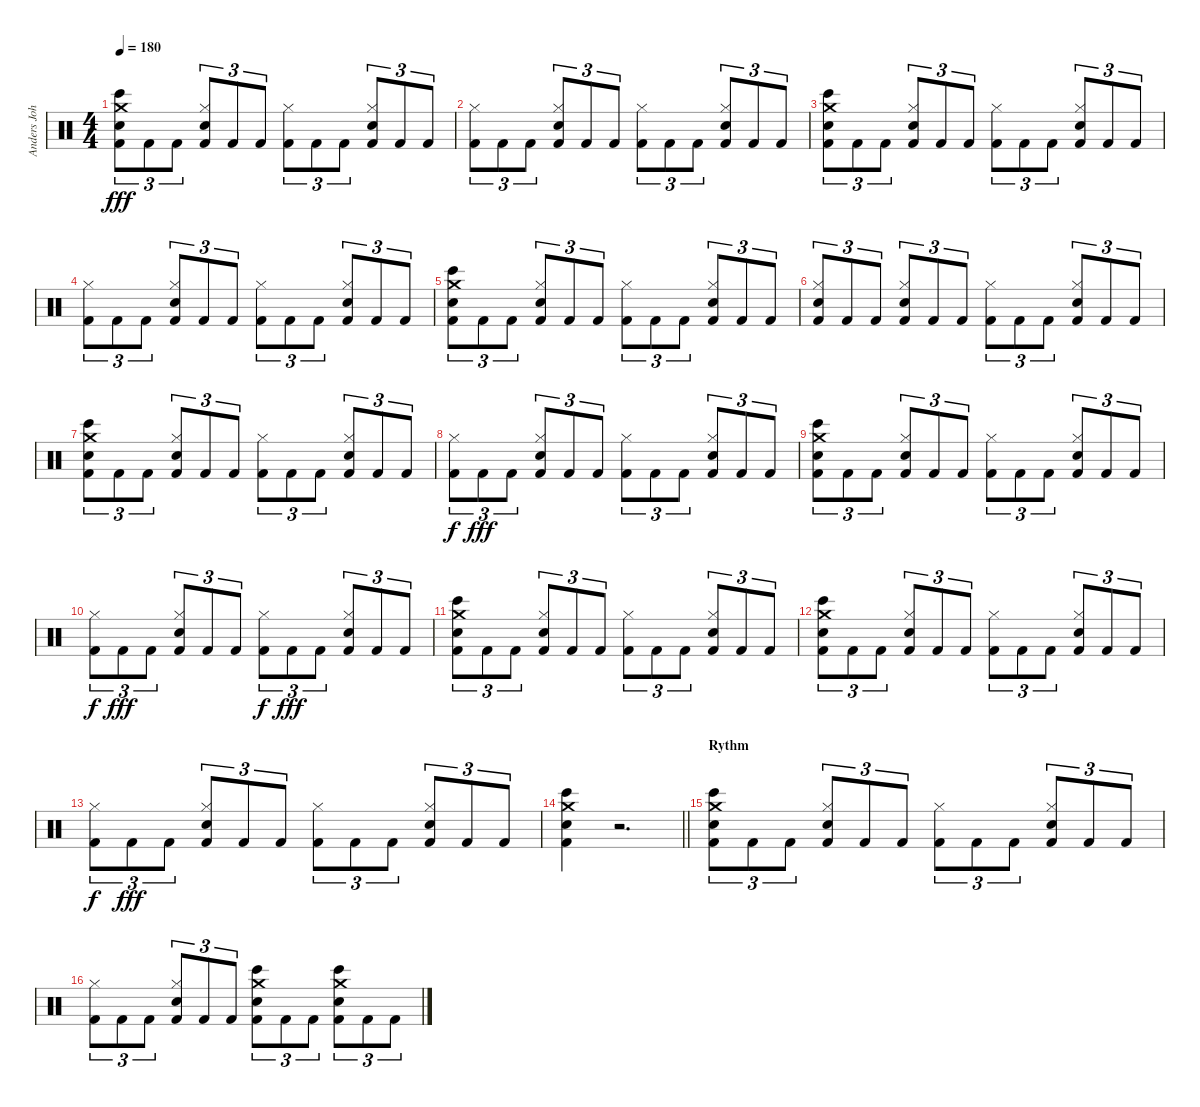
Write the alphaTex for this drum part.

\track ("Anders Johansson" "Anders Joh") {instrument percussion}
\staff {score}
\articulation defaults
\ts (4 4)
\tempo 180
\clef neutral
\ks c
("Bongo High (hit)" "Crash medium (hit)" "Snare (hit) 2" "Kick (hit) 2").8{tu (3 2) dy fff} "Kick (hit) 2".8{tu (3 2)} "Kick (hit) 2".8{tu (3 2)} ("Hi-Hat (closed)" "Electric Snare (hit)" "Kick (hit) 2").8{tu (3 2)} "Kick (hit) 2".8{tu (3 2)} "Kick (hit) 2".8{tu (3 2)} ("Hi-Hat (closed)" "Kick (hit) 2").8{tu (3 2)} "Kick (hit) 2".8{tu (3 2)} "Kick (hit) 2".8{tu (3 2)} ("Hi-Hat (closed)" "Electric Snare (hit)" "Kick (hit) 2").8{tu (3 2)} "Kick (hit) 2".8{tu (3 2)} "Kick (hit) 2".8{tu (3 2)} |
("Hi-Hat (closed)" "Kick (hit) 2").8{tu (3 2)} "Kick (hit) 2".8{tu (3 2)} "Kick (hit) 2".8{tu (3 2)} ("Hi-Hat (closed)" "Electric Snare (hit)" "Kick (hit) 2").8{tu (3 2)} "Kick (hit) 2".8{tu (3 2)} "Kick (hit) 2".8{tu (3 2)} ("Hi-Hat (closed)" "Kick (hit) 2").8{tu (3 2)} "Kick (hit) 2".8{tu (3 2)} "Kick (hit) 2".8{tu (3 2)} ("Hi-Hat (closed)" "Electric Snare (hit)" "Kick (hit) 2").8{tu (3 2)} "Kick (hit) 2".8{tu (3 2)} "Kick (hit) 2".8{tu (3 2)} |
("Bongo High (hit)" "Crash medium (hit)" "Snare (hit) 2" "Kick (hit) 2").8{tu (3 2)} "Kick (hit) 2".8{tu (3 2)} "Kick (hit) 2".8{tu (3 2)} ("Hi-Hat (closed)" "Electric Snare (hit)" "Kick (hit) 2").8{tu (3 2)} "Kick (hit) 2".8{tu (3 2)} "Kick (hit) 2".8{tu (3 2)} ("Hi-Hat (closed)" "Kick (hit) 2").8{tu (3 2)} "Kick (hit) 2".8{tu (3 2)} "Kick (hit) 2".8{tu (3 2)} ("Hi-Hat (closed)" "Electric Snare (hit)" "Kick (hit) 2").8{tu (3 2)} "Kick (hit) 2".8{tu (3 2)} "Kick (hit) 2".8{tu (3 2)} |
("Hi-Hat (closed)" "Kick (hit) 2").8{tu (3 2)} "Kick (hit) 2".8{tu (3 2)} "Kick (hit) 2".8{tu (3 2)} ("Hi-Hat (closed)" "Electric Snare (hit)" "Kick (hit) 2").8{tu (3 2)} "Kick (hit) 2".8{tu (3 2)} "Kick (hit) 2".8{tu (3 2)} ("Hi-Hat (closed)" "Kick (hit) 2").8{tu (3 2)} "Kick (hit) 2".8{tu (3 2)} "Kick (hit) 2".8{tu (3 2)} ("Hi-Hat (closed)" "Electric Snare (hit)" "Kick (hit) 2").8{tu (3 2)} "Kick (hit) 2".8{tu (3 2)} "Kick (hit) 2".8{tu (3 2)} |
("Bongo High (hit)" "Crash medium (hit)" "Snare (hit) 2" "Kick (hit) 2").8{tu (3 2)} "Kick (hit) 2".8{tu (3 2)} "Kick (hit) 2".8{tu (3 2)} ("Hi-Hat (closed)" "Electric Snare (hit)" "Kick (hit) 2").8{tu (3 2)} "Kick (hit) 2".8{tu (3 2)} "Kick (hit) 2".8{tu (3 2)} ("Hi-Hat (closed)" "Kick (hit) 2").8{tu (3 2)} "Kick (hit) 2".8{tu (3 2)} "Kick (hit) 2".8{tu (3 2)} ("Hi-Hat (closed)" "Electric Snare (hit)" "Kick (hit) 2").8{tu (3 2)} "Kick (hit) 2".8{tu (3 2)} "Kick (hit) 2".8{tu (3 2)} |
("Hi-Hat (closed)" "Electric Snare (hit)" "Kick (hit) 2").8{tu (3 2)} "Kick (hit) 2".8{tu (3 2)} "Kick (hit) 2".8{tu (3 2)} ("Hi-Hat (closed)" "Electric Snare (hit)" "Kick (hit) 2").8{tu (3 2)} "Kick (hit) 2".8{tu (3 2)} "Kick (hit) 2".8{tu (3 2)} ("Hi-Hat (closed)" "Kick (hit) 2").8{tu (3 2)} "Kick (hit) 2".8{tu (3 2)} "Kick (hit) 2".8{tu (3 2)} ("Hi-Hat (closed)" "Electric Snare (hit)" "Kick (hit) 2").8{tu (3 2)} "Kick (hit) 2".8{tu (3 2)} "Kick (hit) 2".8{tu (3 2)} |
("Bongo High (hit)" "Crash medium (hit)" "Snare (hit) 2" "Kick (hit) 2").8{tu (3 2)} "Kick (hit) 2".8{tu (3 2)} "Kick (hit) 2".8{tu (3 2)} ("Hi-Hat (closed)" "Electric Snare (hit)" "Kick (hit) 2").8{tu (3 2)} "Kick (hit) 2".8{tu (3 2)} "Kick (hit) 2".8{tu (3 2)} ("Hi-Hat (closed)" "Kick (hit) 2").8{tu (3 2)} "Kick (hit) 2".8{tu (3 2)} "Kick (hit) 2".8{tu (3 2)} ("Hi-Hat (closed)" "Electric Snare (hit)" "Kick (hit) 2").8{tu (3 2)} "Kick (hit) 2".8{tu (3 2)} "Kick (hit) 2".8{tu (3 2)} |
("Hi-Hat (closed)" "Kick (hit) 2").8{tu (3 2) dy f} "Kick (hit) 2".8{tu (3 2) dy fff} "Kick (hit) 2".8{tu (3 2)} ("Hi-Hat (closed)" "Electric Snare (hit)" "Kick (hit) 2").8{tu (3 2)} "Kick (hit) 2".8{tu (3 2)} "Kick (hit) 2".8{tu (3 2)} ("Hi-Hat (closed)" "Kick (hit) 2").8{tu (3 2)} "Kick (hit) 2".8{tu (3 2)} "Kick (hit) 2".8{tu (3 2)} ("Hi-Hat (closed)" "Electric Snare (hit)" "Kick (hit) 2").8{tu (3 2)} "Kick (hit) 2".8{tu (3 2)} "Kick (hit) 2".8{tu (3 2)} |
("Bongo High (hit)" "Crash medium (hit)" "Snare (hit) 2" "Kick (hit) 2").8{tu (3 2)} "Kick (hit) 2".8{tu (3 2)} "Kick (hit) 2".8{tu (3 2)} ("Hi-Hat (closed)" "Electric Snare (hit)" "Kick (hit) 2").8{tu (3 2)} "Kick (hit) 2".8{tu (3 2)} "Kick (hit) 2".8{tu (3 2)} ("Hi-Hat (closed)" "Kick (hit) 2").8{tu (3 2)} "Kick (hit) 2".8{tu (3 2)} "Kick (hit) 2".8{tu (3 2)} ("Hi-Hat (closed)" "Electric Snare (hit)" "Kick (hit) 2").8{tu (3 2)} "Kick (hit) 2".8{tu (3 2)} "Kick (hit) 2".8{tu (3 2)} |
("Hi-Hat (closed)" "Kick (hit) 2").8{tu (3 2) dy f} "Kick (hit) 2".8{tu (3 2) dy fff} "Kick (hit) 2".8{tu (3 2)} ("Hi-Hat (closed)" "Electric Snare (hit)" "Kick (hit) 2").8{tu (3 2)} "Kick (hit) 2".8{tu (3 2)} "Kick (hit) 2".8{tu (3 2)} ("Hi-Hat (closed)" "Kick (hit) 2").8{tu (3 2) dy f} "Kick (hit) 2".8{tu (3 2) dy fff} "Kick (hit) 2".8{tu (3 2)} ("Hi-Hat (closed)" "Electric Snare (hit)" "Kick (hit) 2").8{tu (3 2)} "Kick (hit) 2".8{tu (3 2)} "Kick (hit) 2".8{tu (3 2)} |
("Bongo High (hit)" "Crash medium (hit)" "Snare (hit) 2" "Kick (hit) 2").8{tu (3 2)} "Kick (hit) 2".8{tu (3 2)} "Kick (hit) 2".8{tu (3 2)} ("Hi-Hat (closed)" "Electric Snare (hit)" "Kick (hit) 2").8{tu (3 2)} "Kick (hit) 2".8{tu (3 2)} "Kick (hit) 2".8{tu (3 2)} ("Hi-Hat (closed)" "Kick (hit) 2").8{tu (3 2)} "Kick (hit) 2".8{tu (3 2)} "Kick (hit) 2".8{tu (3 2)} ("Hi-Hat (closed)" "Electric Snare (hit)" "Kick (hit) 2").8{tu (3 2)} "Kick (hit) 2".8{tu (3 2)} "Kick (hit) 2".8{tu (3 2)} |
("Bongo High (hit)" "Crash medium (hit)" "Snare (hit) 2" "Kick (hit) 2").8{tu (3 2)} "Kick (hit) 2".8{tu (3 2)} "Kick (hit) 2".8{tu (3 2)} ("Hi-Hat (closed)" "Electric Snare (hit)" "Kick (hit) 2").8{tu (3 2)} "Kick (hit) 2".8{tu (3 2)} "Kick (hit) 2".8{tu (3 2)} ("Hi-Hat (closed)" "Kick (hit) 2").8{tu (3 2)} "Kick (hit) 2".8{tu (3 2)} "Kick (hit) 2".8{tu (3 2)} ("Hi-Hat (closed)" "Electric Snare (hit)" "Kick (hit) 2").8{tu (3 2)} "Kick (hit) 2".8{tu (3 2)} "Kick (hit) 2".8{tu (3 2)} |
("Hi-Hat (closed)" "Kick (hit) 2").8{tu (3 2) dy f} "Kick (hit) 2".8{tu (3 2) dy fff} "Kick (hit) 2".8{tu (3 2)} ("Hi-Hat (closed)" "Electric Snare (hit)" "Kick (hit) 2").8{tu (3 2)} "Kick (hit) 2".8{tu (3 2)} "Kick (hit) 2".8{tu (3 2)} ("Hi-Hat (closed)" "Kick (hit) 2").8{tu (3 2)} "Kick (hit) 2".8{tu (3 2)} "Kick (hit) 2".8{tu (3 2)} ("Hi-Hat (closed)" "Electric Snare (hit)" "Kick (hit) 2").8{tu (3 2)} "Kick (hit) 2".8{tu (3 2)} "Kick (hit) 2".8{tu (3 2)} |
\barLineRight lightlight
("Bongo High (hit)" "Crash medium (hit)" "Snare (hit) 2" "Kick (hit) 2").4 r.2{d} |
\section ("" "Rythm")
("Bongo High (hit)" "Crash medium (hit)" "Snare (hit) 2" "Kick (hit) 2").8{tu (3 2)} "Kick (hit) 2".8{tu (3 2)} "Kick (hit) 2".8{tu (3 2)} ("Hi-Hat (closed)" "Electric Snare (hit)" "Kick (hit) 2").8{tu (3 2)} "Kick (hit) 2".8{tu (3 2)} "Kick (hit) 2".8{tu (3 2)} ("Hi-Hat (closed)" "Kick (hit) 2").8{tu (3 2)} "Kick (hit) 2".8{tu (3 2)} "Kick (hit) 2".8{tu (3 2)} ("Hi-Hat (closed)" "Electric Snare (hit)" "Kick (hit) 2").8{tu (3 2)} "Kick (hit) 2".8{tu (3 2)} "Kick (hit) 2".8{tu (3 2)} |
("Hi-Hat (closed)" "Kick (hit) 2").8{tu (3 2)} "Kick (hit) 2".8{tu (3 2)} "Kick (hit) 2".8{tu (3 2)} ("Hi-Hat (closed)" "Electric Snare (hit)" "Kick (hit) 2").8{tu (3 2)} "Kick (hit) 2".8{tu (3 2)} "Kick (hit) 2".8{tu (3 2)} ("Bongo High (hit)" "Crash medium (hit)" "Snare (hit) 2" "Kick (hit) 2").8{tu (3 2)} "Kick (hit) 2".8{tu (3 2)} "Kick (hit) 2".8{tu (3 2)} ("Bongo High (hit)" "Crash medium (hit)" "Snare (hit) 2" "Kick (hit) 2").8{tu (3 2)} "Kick (hit) 2".8{tu (3 2)} "Kick (hit) 2".8{tu (3 2)}
